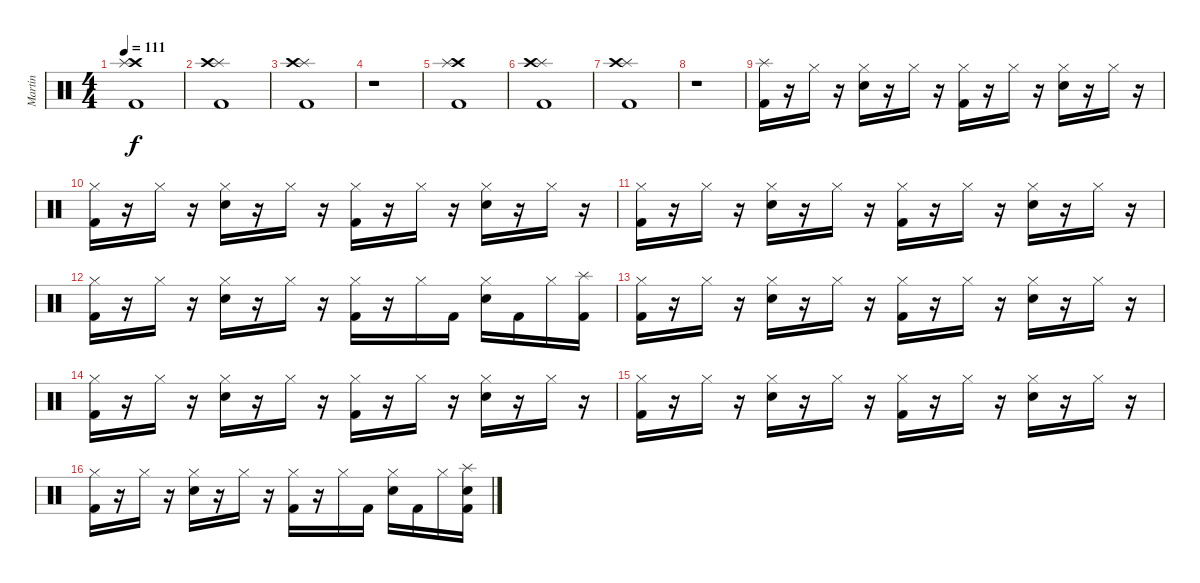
\track ("Martin" "Martin") {instrument percussion}
\staff {score}
\articulation defaults
\ts (4 4)
\tempo 111
\clef neutral
\ks c
("Kick (hit) 2" "Crash high (hit)" "Splash (hit)").1{dy f} |
("Kick (hit) 2" "Splash (hit)" "Crash high (hit)").1 |
("Kick (hit) 2" "Splash (hit)" "Crash high (hit)").1 |
r.1 |
("Kick (hit) 2" "Crash high (hit)" "Splash (hit)").1 |
("Kick (hit) 2" "Splash (hit)" "Crash high (hit)").1 |
("Kick (hit) 2" "Splash (hit)" "Crash high (hit)").1 |
r.1 |
("Kick (hit) 2" "Splash (hit)").16 r.16 "Hi-Hat (closed)".16 r.16 ("Electric Snare (hit)" "Hi-Hat (closed)").16 r.16 "Hi-Hat (closed)".16 r.16 ("Kick (hit) 2" "Hi-Hat (closed)").16 r.16 "Hi-Hat (closed)".16 r.16 ("Electric Snare (hit)" "Hi-Hat (closed)").16 r.16 "Hi-Hat (closed)".16 r.16 |
("Kick (hit) 2" "Hi-Hat (closed)").16 r.16 "Hi-Hat (closed)".16 r.16 ("Electric Snare (hit)" "Hi-Hat (closed)").16 r.16 "Hi-Hat (closed)".16 r.16 ("Kick (hit) 2" "Hi-Hat (closed)").16 r.16 "Hi-Hat (closed)".16 r.16 ("Electric Snare (hit)" "Hi-Hat (closed)").16 r.16 "Hi-Hat (closed)".16 r.16 |
("Kick (hit) 2" "Hi-Hat (closed)").16 r.16 "Hi-Hat (closed)".16 r.16 ("Electric Snare (hit)" "Hi-Hat (closed)").16 r.16 "Hi-Hat (closed)".16 r.16 ("Kick (hit) 2" "Hi-Hat (closed)").16 r.16 "Hi-Hat (closed)".16 r.16 ("Electric Snare (hit)" "Hi-Hat (closed)").16 r.16 "Hi-Hat (closed)".16 r.16 |
("Kick (hit) 2" "Hi-Hat (closed)").16 r.16 "Hi-Hat (closed)".16 r.16 ("Electric Snare (hit)" "Hi-Hat (closed)").16 r.16 "Hi-Hat (closed)".16 r.16 ("Kick (hit) 2" "Hi-Hat (closed)").16 r.16 "Hi-Hat (closed)".16 "Kick (hit) 2".16 ("Electric Snare (hit)" "Hi-Hat (closed)").16 "Kick (hit) 2".16 "Hi-Hat (closed)".16 ("Kick (hit) 2" "Splash (hit)").16 |
("Kick (hit) 2" "Hi-Hat (closed)").16 r.16 "Hi-Hat (closed)".16 r.16 ("Electric Snare (hit)" "Hi-Hat (closed)").16 r.16 "Hi-Hat (closed)".16 r.16 ("Kick (hit) 2" "Hi-Hat (closed)").16 r.16 "Hi-Hat (closed)".16 r.16 ("Electric Snare (hit)" "Hi-Hat (closed)").16 r.16 "Hi-Hat (closed)".16 r.16 |
("Kick (hit) 2" "Hi-Hat (closed)").16 r.16 "Hi-Hat (closed)".16 r.16 ("Electric Snare (hit)" "Hi-Hat (closed)").16 r.16 "Hi-Hat (closed)".16 r.16 ("Kick (hit) 2" "Hi-Hat (closed)").16 r.16 "Hi-Hat (closed)".16 r.16 ("Electric Snare (hit)" "Hi-Hat (closed)").16 r.16 "Hi-Hat (closed)".16 r.16 |
("Kick (hit) 2" "Hi-Hat (closed)").16 r.16 "Hi-Hat (closed)".16 r.16 ("Electric Snare (hit)" "Hi-Hat (closed)").16 r.16 "Hi-Hat (closed)".16 r.16 ("Kick (hit) 2" "Hi-Hat (closed)").16 r.16 "Hi-Hat (closed)".16 r.16 ("Electric Snare (hit)" "Hi-Hat (closed)").16 r.16 "Hi-Hat (closed)".16 r.16 |
("Kick (hit) 2" "Hi-Hat (closed)").16 r.16 "Hi-Hat (closed)".16 r.16 ("Electric Snare (hit)" "Hi-Hat (closed)").16 r.16 "Hi-Hat (closed)".16 r.16 ("Kick (hit) 2" "Hi-Hat (closed)").16 r.16 "Hi-Hat (closed)".16 "Kick (hit) 2".16 ("Electric Snare (hit)" "Hi-Hat (closed)").16 "Kick (hit) 2".16 "Hi-Hat (closed)".16 ("Kick (hit) 2" "Electric Snare (hit)" "Splash (hit)").16
